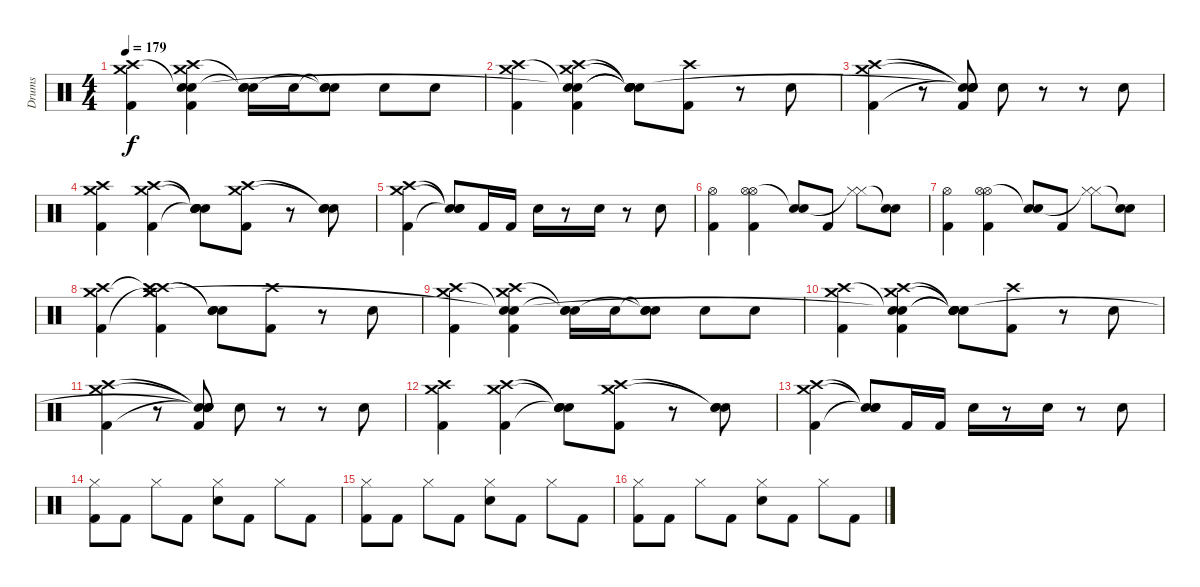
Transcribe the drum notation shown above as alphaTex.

\track ("Drums" "Drums") {instrument percussion}
\staff {score}
\articulation defaults
\ts (4 4)
\tempo 179
\clef neutral
\ks c
("Crash high (hit)" "Crash medium (hit)" "Kick (hit) 2").4{dy f} ("Snare (hit)"{t} "Crash high (hit)" "Crash medium (hit)" "Snare (hit)"{t} "Kick (hit) 2").4 ("Snare (hit)"{t} "Snare (hit)"{t} "Electric Snare (hit)").16 "Electric Snare (hit)".16 ("Snare (hit)"{t} "Snare (hit)"{t} "Electric Snare (hit)").8 "Electric Snare (hit)".8 "Electric Snare (hit)".8 |
("Crash high (hit)" "Crash medium (hit)" "Kick (hit) 2").4 ("Snare (hit)"{t} "Crash high (hit)" "Crash medium (hit)" "Snare (hit)"{t} "Kick (hit) 2").4 ("Snare (hit)"{t} "Snare (hit)"{t} "Snare (hit)"{t} "Snare (hit)"{t} "Electric Snare (hit)").8 ("Crash high (hit)" "Kick (hit) 2").8 r.8 "Electric Snare (hit)".8 |
("Crash medium (hit)" "Crash high (hit)" "Kick (hit) 2").4 r.8 ("Snare (hit)"{t} "Snare (hit)"{t} "Snare (hit)"{t} "Snare (hit)"{t} "Kick (hit) 2").8 "Electric Snare (hit)".8 r.8 r.8 "Electric Snare (hit)".8 |
("Crash medium (hit)" "Crash high (hit)" "Kick (hit) 2").4 ("Crash medium (hit)" "Crash high (hit)" "Kick (hit) 2").4 ("Snare (hit)"{t} "Snare (hit)"{t} "Snare (hit)"{t} "Electric Snare (hit)").8 ("Crash medium (hit)" "Crash high (hit)" "Kick (hit) 2").8 r.8 ("Snare (hit)"{t} "Snare (hit)"{t} "Electric Snare (hit)").8 |
("Crash high (hit)" "Crash medium (hit)" "Kick (hit) 2").4 ("Snare (hit)"{t} "Snare (hit)"{t} "Snare (hit)"{t}).8 "Kick (hit) 2".16 "Kick (hit) 2".16 "Electric Snare (hit)".16 r.8 "Electric Snare (hit)".16 r.8 "Electric Snare (hit)".8 |
("Hi-Hat (open)" "Kick (hit) 2").4 ("Hi-Hat (open)" "Hi-Hat (open)" "Kick (hit) 2").4 ("Electric Snare (hit)" "Snare (hit)"{t}).8 "Kick (hit) 2".8 ("Hi-Hat (closed)" "Hi-Hat (closed)"{t}).8 ("Snare (hit)"{t} "Electric Snare (hit)").8 |
("Hi-Hat (open)" "Kick (hit) 2").4 ("Hi-Hat (open)" "Hi-Hat (open)" "Kick (hit) 2").4 ("Electric Snare (hit)" "Snare (hit)"{t}).8 "Kick (hit) 2".8 ("Hi-Hat (closed)" "Hi-Hat (closed)"{t}).8 ("Snare (hit)"{t} "Electric Snare (hit)").8 |
("Crash high (hit)" "Crash medium (hit)" "Kick (hit) 2").4 ("Crash high (hit)" "Crash high (hit)"{t} "Crash medium (hit)"{t} "Crash medium (hit)" "Kick (hit) 2").4 ("Snare (hit)"{t} "Snare (hit)"{t} "Electric Snare (hit)").8 ("Crash high (hit)" "Kick (hit) 2").8 r.8 "Electric Snare (hit)".8 |
("Crash high (hit)" "Crash medium (hit)" "Kick (hit) 2").4 ("Snare (hit)"{t} "Crash high (hit)" "Crash medium (hit)" "Snare (hit)"{t} "Kick (hit) 2").4 ("Snare (hit)"{t} "Snare (hit)"{t} "Electric Snare (hit)").16 "Electric Snare (hit)".16 ("Snare (hit)"{t} "Snare (hit)"{t} "Electric Snare (hit)").8 "Electric Snare (hit)".8 "Electric Snare (hit)".8 |
("Crash high (hit)" "Crash medium (hit)" "Kick (hit) 2").4 ("Snare (hit)"{t} "Crash high (hit)" "Crash medium (hit)" "Snare (hit)"{t} "Kick (hit) 2").4 ("Snare (hit)"{t} "Snare (hit)"{t} "Snare (hit)"{t} "Snare (hit)"{t} "Electric Snare (hit)").8 ("Crash high (hit)" "Kick (hit) 2").8 r.8 "Electric Snare (hit)".8 |
("Crash medium (hit)" "Crash high (hit)" "Kick (hit) 2").4 r.8 ("Snare (hit)"{t} "Snare (hit)"{t} "Snare (hit)"{t} "Snare (hit)"{t} "Kick (hit) 2").8 "Electric Snare (hit)".8 r.8 r.8 "Electric Snare (hit)".8 |
("Crash medium (hit)" "Crash high (hit)" "Kick (hit) 2").4 ("Crash medium (hit)" "Crash high (hit)" "Kick (hit) 2").4 ("Snare (hit)"{t} "Snare (hit)"{t} "Snare (hit)"{t} "Electric Snare (hit)").8 ("Crash medium (hit)" "Crash high (hit)" "Kick (hit) 2").8 r.8 ("Snare (hit)"{t} "Snare (hit)"{t} "Electric Snare (hit)").8 |
("Crash high (hit)" "Crash medium (hit)" "Kick (hit) 2").4 ("Snare (hit)"{t} "Snare (hit)"{t} "Snare (hit)"{t}).8 "Kick (hit) 2".16 "Kick (hit) 2".16 "Electric Snare (hit)".16 r.8 "Electric Snare (hit)".16 r.8 "Electric Snare (hit)".8 |
("Hi-Hat (closed)" "Kick (hit) 2").8{volume 16} "Kick (hit) 2".8 "Hi-Hat (closed)".8 "Kick (hit) 2".8 ("Hi-Hat (closed)" "Electric Snare (hit)").8 "Kick (hit) 2".8 "Hi-Hat (closed)".8 "Kick (hit) 2".8 |
("Hi-Hat (closed)" "Kick (hit) 2").8 "Kick (hit) 2".8 "Hi-Hat (closed)".8 "Kick (hit) 2".8 ("Hi-Hat (closed)" "Electric Snare (hit)").8 "Kick (hit) 2".8 "Hi-Hat (closed)".8 "Kick (hit) 2".8 |
("Hi-Hat (closed)" "Kick (hit) 2").8 "Kick (hit) 2".8 "Hi-Hat (closed)".8 "Kick (hit) 2".8 ("Hi-Hat (closed)" "Electric Snare (hit)").8 "Kick (hit) 2".8 "Hi-Hat (closed)".8 "Kick (hit) 2".8
